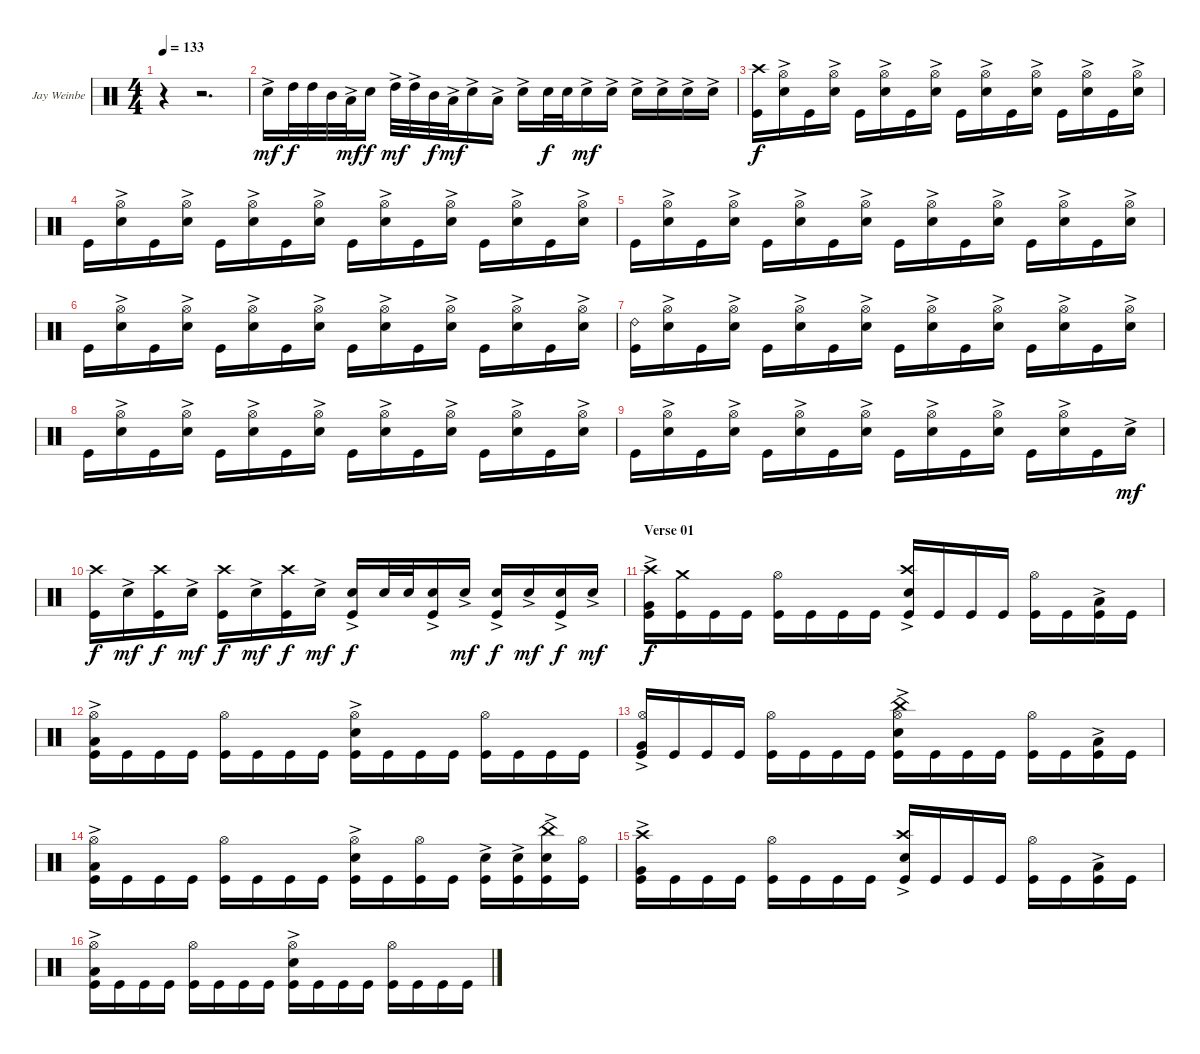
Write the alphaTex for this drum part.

\bracketExtendMode groupsimilarinstruments
\firstSystemTrackNameOrientation horizontal
\otherSystemsTrackNameOrientation horizontal
\track ("Jay Weinberg" "Jay Weinbe") {instrument percussion}
\staff {score}
\articulation defaults
\ts (4 4)
\beaming (8 2 2 2 2)
\tempo 133
\clef neutral
\ks c
r.4{dy mf} r.2{d} |
"Snare (hit) 2"{ac}.16 "High Tom (hit)".32{dy f} "High Tom (hit)".32 "Mid Tom (hit)".32 "Low Tom (hit)"{ac}.32{dy mf} "Snare (hit) 2".16{dy f} "High Tom (hit)"{ac}.32{dy mf} "High Tom (hit)"{ac}.32 "Mid Tom (hit)".32{dy f} "Low Tom (hit)"{ac}.32{dy mf} "Snare (hit) 2"{ac}.16 "Low Tom (hit)"{ac}.16 "Snare (hit) 2"{ac}.16 "Snare (hit) 2".32{dy f} "Snare (hit) 2".32 "Snare (hit) 2"{ac}.16{dy mf} "Snare (hit) 2"{ac}.16 "Snare (hit) 2"{ac}.16 "Snare (hit) 2"{ac}.16 "Snare (hit) 2"{ac}.16 "Snare (hit) 2"{ac}.16 |
("Crash high (hit)" "Kick (hit)").16{dy f} ("Snare (hit) 2"{ac} "Hi-Hat (open)").16 "Kick (hit)".16 ("Snare (hit) 2"{ac} "Hi-Hat (open)").16 "Kick (hit)".16 ("Snare (hit) 2"{ac} "Hi-Hat (open)").16 "Kick (hit)".16 ("Snare (hit) 2"{ac} "Hi-Hat (open)").16 "Kick (hit)".16 ("Snare (hit) 2"{ac} "Hi-Hat (open)").16 "Kick (hit)".16 ("Snare (hit) 2"{ac} "Hi-Hat (open)").16 "Kick (hit)".16 ("Snare (hit) 2"{ac} "Hi-Hat (open)").16 "Kick (hit)".16 ("Snare (hit) 2"{ac} "Hi-Hat (open)").16 |
"Kick (hit)".16 ("Snare (hit) 2"{ac} "Hi-Hat (open)").16 "Kick (hit)".16 ("Snare (hit) 2"{ac} "Hi-Hat (open)").16 "Kick (hit)".16 ("Snare (hit) 2"{ac} "Hi-Hat (open)").16 "Kick (hit)".16 ("Snare (hit) 2"{ac} "Hi-Hat (open)").16 "Kick (hit)".16 ("Snare (hit) 2"{ac} "Hi-Hat (open)").16 "Kick (hit)".16 ("Snare (hit) 2"{ac} "Hi-Hat (open)").16 "Kick (hit)".16 ("Snare (hit) 2"{ac} "Hi-Hat (open)").16 "Kick (hit)".16 ("Snare (hit) 2"{ac} "Hi-Hat (open)").16 |
"Kick (hit)".16 ("Snare (hit) 2"{ac} "Hi-Hat (open)").16 "Kick (hit)".16 ("Snare (hit) 2"{ac} "Hi-Hat (open)").16 "Kick (hit)".16 ("Snare (hit) 2"{ac} "Hi-Hat (open)").16 "Kick (hit)".16 ("Snare (hit) 2"{ac} "Hi-Hat (open)").16 "Kick (hit)".16 ("Snare (hit) 2"{ac} "Hi-Hat (open)").16 "Kick (hit)".16 ("Snare (hit) 2"{ac} "Hi-Hat (open)").16 "Kick (hit)".16 ("Snare (hit) 2"{ac} "Hi-Hat (open)").16 "Kick (hit)".16 ("Snare (hit) 2"{ac} "Hi-Hat (open)").16 |
"Kick (hit)".16 ("Snare (hit) 2"{ac} "Hi-Hat (open)").16 "Kick (hit)".16 ("Snare (hit) 2"{ac} "Hi-Hat (open)").16 "Kick (hit)".16 ("Snare (hit) 2"{ac} "Hi-Hat (open)").16 "Kick (hit)".16 ("Snare (hit) 2"{ac} "Hi-Hat (open)").16 "Kick (hit)".16 ("Snare (hit) 2"{ac} "Hi-Hat (open)").16 "Kick (hit)".16 ("Snare (hit) 2"{ac} "Hi-Hat (open)").16 "Kick (hit)".16 ("Snare (hit) 2"{ac} "Hi-Hat (open)").16 "Kick (hit)".16 ("Snare (hit) 2"{ac} "Hi-Hat (open)").16 |
("Kick (hit)" "Ride (bell) 2").16 ("Snare (hit) 2"{ac} "Hi-Hat (open)").16 "Kick (hit)".16 ("Snare (hit) 2"{ac} "Hi-Hat (open)").16 "Kick (hit)".16 ("Snare (hit) 2"{ac} "Hi-Hat (open)").16 "Kick (hit)".16 ("Snare (hit) 2"{ac} "Hi-Hat (open)").16 "Kick (hit)".16 ("Snare (hit) 2"{ac} "Hi-Hat (open)").16 "Kick (hit)".16 ("Snare (hit) 2"{ac} "Hi-Hat (open)").16 "Kick (hit)".16 ("Snare (hit) 2"{ac} "Hi-Hat (open)").16 "Kick (hit)".16 ("Snare (hit) 2"{ac} "Hi-Hat (open)").16 |
"Kick (hit)".16 ("Snare (hit) 2"{ac} "Hi-Hat (open)").16 "Kick (hit)".16 ("Snare (hit) 2"{ac} "Hi-Hat (open)").16 "Kick (hit)".16 ("Snare (hit) 2"{ac} "Hi-Hat (open)").16 "Kick (hit)".16 ("Snare (hit) 2"{ac} "Hi-Hat (open)").16 "Kick (hit)".16 ("Snare (hit) 2"{ac} "Hi-Hat (open)").16 "Kick (hit)".16 ("Snare (hit) 2"{ac} "Hi-Hat (open)").16 "Kick (hit)".16 ("Snare (hit) 2"{ac} "Hi-Hat (open)").16 "Kick (hit)".16 ("Snare (hit) 2"{ac} "Hi-Hat (open)").16 |
"Kick (hit)".16 ("Snare (hit) 2"{ac} "Hi-Hat (open)").16 "Kick (hit)".16 ("Snare (hit) 2"{ac} "Hi-Hat (open)").16 "Kick (hit)".16 ("Snare (hit) 2"{ac} "Hi-Hat (open)").16 "Kick (hit)".16 ("Snare (hit) 2"{ac} "Hi-Hat (open)").16 "Kick (hit)".16 ("Snare (hit) 2"{ac} "Hi-Hat (open)").16 "Kick (hit)".16 ("Snare (hit) 2"{ac} "Hi-Hat (open)").16 "Kick (hit)".16 ("Snare (hit) 2"{ac} "Hi-Hat (open)").16 "Kick (hit)".16 "Snare (hit) 2"{ac}.16{dy mf} |
("Kick (hit)" "Crash high (hit)").16{dy f} "Snare (hit) 2"{ac}.16{dy mf} ("Kick (hit)" "Crash high (hit)").16{dy f} "Snare (hit) 2"{ac}.16{dy mf} ("Kick (hit)" "Crash high (hit)").16{dy f} "Snare (hit) 2"{ac}.16{dy mf} ("Kick (hit)" "Crash high (hit)").16{dy f} "Snare (hit) 2"{ac}.16{dy mf} ("Kick (hit)" "Snare (hit) 2"{ac}).16{dy f} "Snare (hit) 2".32 "Snare (hit) 2".32 ("Kick (hit)" "Snare (hit) 2"{ac}).16 "Snare (hit) 2"{ac}.16{dy mf} ("Kick (hit)" "Snare (hit) 2"{ac}).16{dy f} "Snare (hit) 2"{ac}.16{dy mf} ("Kick (hit)" "Snare (hit) 2"{ac}).16{dy f} "Snare (hit) 2"{ac}.16{dy mf} |
\section ("" "Verse 01")
("Kick (hit)" "Crash high (hit)" "Very Low Tom (hit)"{ac}).16{dy f} ("Kick (hit)" "Crash medium (hit)").16 "Kick (hit)".16 "Kick (hit)".16 ("Kick (hit)" "Hi-Hat (open)").16 "Kick (hit)".16 "Kick (hit)".16 "Kick (hit)".16 ("Kick (hit)" "Snare (hit) 2"{ac} "Crash high (hit)").16 "Kick (hit)".16 "Kick (hit)".16 "Kick (hit)".16 ("Kick (hit)" "Hi-Hat (open)").16 "Kick (hit)".16 ("Kick (hit)" "Low Tom (hit)"{ac}).16 "Kick (hit)".16 |
("Kick (hit)" "Low Tom (hit)"{ac} "Hi-Hat (open)").16 "Kick (hit)".16 "Kick (hit)".16 "Kick (hit)".16 ("Kick (hit)" "Hi-Hat (open)").16 "Kick (hit)".16 "Kick (hit)".16 "Kick (hit)".16 ("Kick (hit)" "Hi-Hat (open)" "Snare (hit) 2"{ac}).16 "Kick (hit)".16 "Kick (hit)".16 "Kick (hit)".16 ("Kick (hit)" "Hi-Hat (open)").16 "Kick (hit)".16 "Kick (hit)".16 "Kick (hit)".16 |
("Kick (hit)" "Very Low Tom (hit)"{ac} "Hi-Hat (open)").16 "Kick (hit)".16 "Kick (hit)".16 "Kick (hit)".16 ("Kick (hit)" "Hi-Hat (open)").16 "Kick (hit)".16 "Kick (hit)".16 "Kick (hit)".16 ("Kick (hit)" "Snare (hit) 2"{ac} "Hi-Hat (open)" "China (hit)").16 "Kick (hit)".16 "Kick (hit)".16 "Kick (hit)".16 ("Kick (hit)" "Hi-Hat (open)").16 "Kick (hit)".16 ("Kick (hit)" "Low Tom (hit)"{ac}).16 "Kick (hit)".16 |
("Kick (hit)" "Low Tom (hit)"{ac} "Hi-Hat (open)").16 "Kick (hit)".16 "Kick (hit)".16 "Kick (hit)".16 ("Kick (hit)" "Hi-Hat (open)").16 "Kick (hit)".16 "Kick (hit)".16 "Kick (hit)".16 ("Kick (hit)" "Snare (hit) 2"{ac} "Hi-Hat (open)").16 "Kick (hit)".16 ("Kick (hit)" "Hi-Hat (open)").16 "Kick (hit)".16 ("Kick (hit)" "Snare (hit) 2"{ac}).16 ("Kick (hit)" "Snare (hit) 2"{ac}).16 ("Kick (hit)" "Snare (hit) 2"{ac} "China (hit)"{ac}).16 ("Kick (hit)" "Hi-Hat (open)").16 |
("Kick (hit)" "Crash high (hit)" "Very Low Tom (hit)"{ac}).16 "Kick (hit)".16 "Kick (hit)".16 "Kick (hit)".16 ("Kick (hit)" "Hi-Hat (open)").16 "Kick (hit)".16 "Kick (hit)".16 "Kick (hit)".16 ("Kick (hit)" "Snare (hit) 2"{ac} "Crash high (hit)").16 "Kick (hit)".16 "Kick (hit)".16 "Kick (hit)".16 ("Kick (hit)" "Hi-Hat (open)").16 "Kick (hit)".16 ("Kick (hit)" "Low Tom (hit)"{ac}).16 "Kick (hit)".16 |
("Kick (hit)" "Low Tom (hit)"{ac} "Hi-Hat (open)").16 "Kick (hit)".16 "Kick (hit)".16 "Kick (hit)".16 ("Kick (hit)" "Hi-Hat (open)").16 "Kick (hit)".16 "Kick (hit)".16 "Kick (hit)".16 ("Kick (hit)" "Hi-Hat (open)" "Snare (hit) 2"{ac}).16 "Kick (hit)".16 "Kick (hit)".16 "Kick (hit)".16 ("Kick (hit)" "Hi-Hat (open)").16 "Kick (hit)".16 "Kick (hit)".16 "Kick (hit)".16
